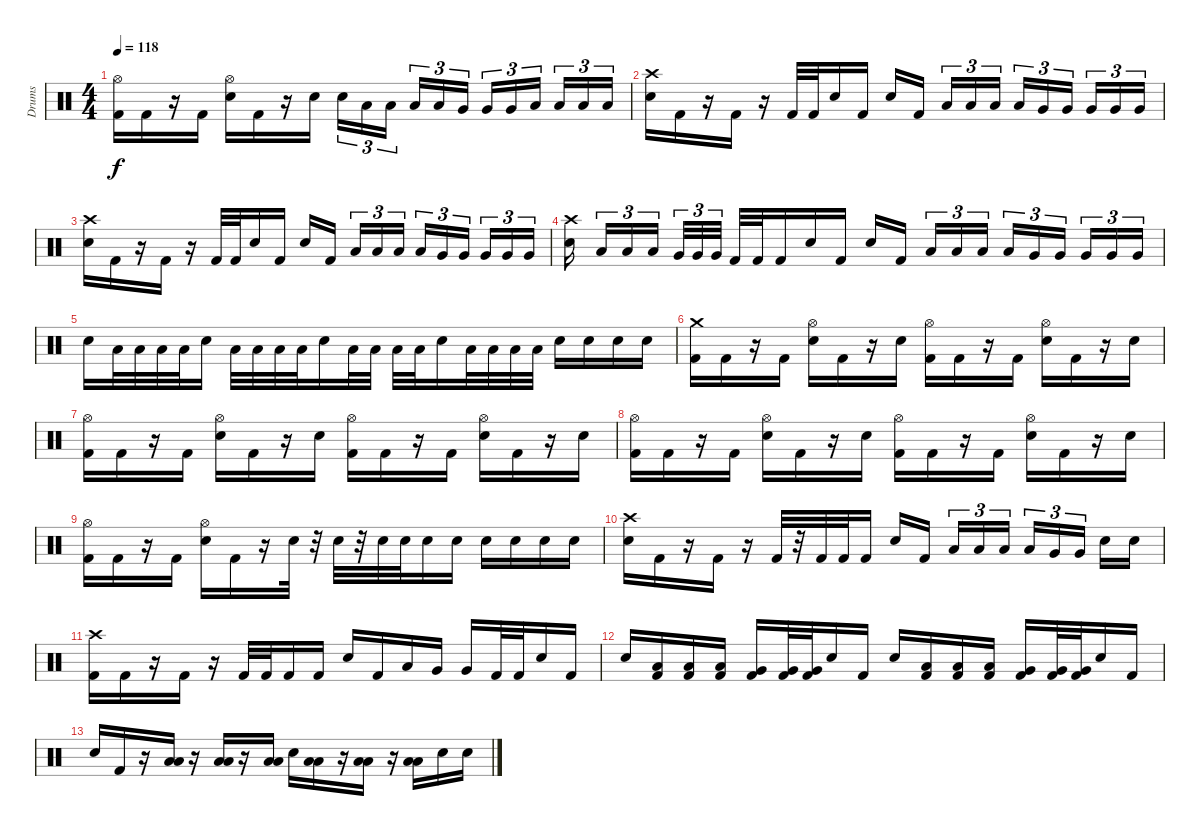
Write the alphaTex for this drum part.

\track ("Drums" "Drums") {instrument percussion}
\staff {score}
\articulation defaults
\ts (4 4)
\tempo 118
\clef neutral
\ks c
("Hi-Hat (open)" "Kick (hit) 2").16{dy f} "Kick (hit) 2".16 r.16 "Kick (hit) 2".16 ("Hi-Hat (open)" "Electric Snare (hit)").16 "Kick (hit) 2".16 r.16 "Electric Snare (hit)".16 "Electric Snare (hit)".16{tu (3 2)} "Low Tom (hit)".16{tu (3 2)} "Low Tom (hit)".16{tu (3 2) beam splitsecondary} "Low Tom (hit)".16{tu (3 2)} "Low Tom (hit)".16{tu (3 2)} "Very Low Tom (hit)".16{tu (3 2)} "Very Low Tom (hit)".16{tu (3 2)} "Very Low Tom (hit)".16{tu (3 2)} "Low Floor Tom (hit)".16{tu (3 2) beam splitsecondary} "Low Floor Tom (hit)".16{tu (3 2)} "Low Floor Tom (hit)".16{tu (3 2)} "Low Floor Tom (hit)".16{tu (3 2)} |
("Crash high (hit)" "Electric Snare (hit)").16 "Kick (hit) 2".16 r.16 "Kick (hit) 2".16 r.16 "Kick (hit) 2".32 "Kick (hit) 2".32 "Electric Snare (hit)".16 "Kick (hit) 2".16 "Electric Snare (hit)".16 "Kick (hit) 2".16{beam splitsecondary} "Low Tom (hit)".16{tu (3 2)} "Low Tom (hit)".16{tu (3 2)} "Low Tom (hit)".16{tu (3 2)} "Low Tom (hit)".16{tu (3 2)} "Very Low Tom (hit)".16{tu (3 2)} "Very Low Tom (hit)".16{tu (3 2) beam splitsecondary} "Very Low Tom (hit)".16{tu (3 2)} "Very Low Tom (hit)".16{tu (3 2)} "Very Low Tom (hit)".16{tu (3 2)} |
("Crash high (hit)" "Electric Snare (hit)").16 "Kick (hit) 2".16 r.16 "Kick (hit) 2".16 r.16 "Kick (hit) 2".32 "Kick (hit) 2".32 "Electric Snare (hit)".16 "Kick (hit) 2".16 "Electric Snare (hit)".16 "Kick (hit) 2".16{beam splitsecondary} "Low Tom (hit)".16{tu (3 2)} "Low Tom (hit)".16{tu (3 2)} "Low Tom (hit)".16{tu (3 2)} "Low Tom (hit)".16{tu (3 2)} "Very Low Tom (hit)".16{tu (3 2)} "Very Low Tom (hit)".16{tu (3 2) beam splitsecondary} "Very Low Tom (hit)".16{tu (3 2)} "Very Low Tom (hit)".16{tu (3 2)} "Very Low Tom (hit)".16{tu (3 2)} |
("Crash high (hit)" "Electric Snare (hit)").16{beam splitsecondary} "Low Tom (hit)".16{tu (3 2)} "Low Tom (hit)".16{tu (3 2)} "Low Tom (hit)".16{tu (3 2) beam splitsecondary} "Very Low Tom (hit)".32{tu (3 2)} "Very Low Tom (hit)".32{tu (3 2)} "Very Low Tom (hit)".32{tu (3 2)} "Kick (hit) 2".32 "Kick (hit) 2".32 "Kick (hit) 2".16 "Electric Snare (hit)".16 "Kick (hit) 2".16 "Electric Snare (hit)".16 "Kick (hit) 2".16{beam splitsecondary} "Low Tom (hit)".16{tu (3 2)} "Low Tom (hit)".16{tu (3 2)} "Low Tom (hit)".16{tu (3 2)} "Low Tom (hit)".16{tu (3 2)} "Very Low Tom (hit)".16{tu (3 2)} "Very Low Tom (hit)".16{tu (3 2) beam splitsecondary} "Very Low Tom (hit)".16{tu (3 2)} "Very Low Tom (hit)".16{tu (3 2)} "Very Low Tom (hit)".16{tu (3 2)} |
"Electric Snare (hit)".16 "Low Tom (hit)".32 "Low Tom (hit)".32 "Low Tom (hit)".32 "Low Tom (hit)".32 "Electric Snare (hit)".16 "Low Tom (hit)".32 "Low Tom (hit)".32 "Low Tom (hit)".32 "Low Tom (hit)".32 "Electric Snare (hit)".16 "Low Tom (hit)".32 "Low Tom (hit)".32 "Low Tom (hit)".32 "Low Tom (hit)".32 "Electric Snare (hit)".16 "Low Tom (hit)".32 "Low Tom (hit)".32 "Low Tom (hit)".32 "Low Tom (hit)".32 "Electric Snare (hit)".16 "Electric Snare (hit)".16 "Electric Snare (hit)".16 "Electric Snare (hit)".16 |
("Crash medium (hit)" "Kick (hit) 2").16 "Kick (hit) 2".16 r.16 "Kick (hit) 2".16 ("Hi-Hat (open)" "Electric Snare (hit)").16 "Kick (hit) 2".16 r.16 "Electric Snare (hit)".16 ("Hi-Hat (open)" "Kick (hit) 2").16 "Kick (hit) 2".16 r.16 "Kick (hit) 2".16 ("Hi-Hat (open)" "Electric Snare (hit)").16 "Kick (hit) 2".16 r.16 "Electric Snare (hit)".16 |
("Hi-Hat (open)" "Kick (hit) 2").16 "Kick (hit) 2".16 r.16 "Kick (hit) 2".16 ("Hi-Hat (open)" "Electric Snare (hit)").16 "Kick (hit) 2".16 r.16 "Electric Snare (hit)".16 ("Hi-Hat (open)" "Kick (hit) 2").16 "Kick (hit) 2".16 r.16 "Kick (hit) 2".16 ("Hi-Hat (open)" "Electric Snare (hit)").16 "Kick (hit) 2".16 r.16 "Electric Snare (hit)".16 |
("Hi-Hat (open)" "Kick (hit) 2").16 "Kick (hit) 2".16 r.16 "Kick (hit) 2".16 ("Hi-Hat (open)" "Electric Snare (hit)").16 "Kick (hit) 2".16 r.16 "Electric Snare (hit)".16 ("Hi-Hat (open)" "Kick (hit) 2").16 "Kick (hit) 2".16 r.16 "Kick (hit) 2".16 ("Hi-Hat (open)" "Electric Snare (hit)").16 "Kick (hit) 2".16 r.16 "Electric Snare (hit)".16 |
("Hi-Hat (open)" "Kick (hit) 2").16 "Kick (hit) 2".16 r.16 "Kick (hit) 2".16 ("Hi-Hat (open)" "Electric Snare (hit)").16 "Kick (hit) 2".16 r.16 "Electric Snare (hit)".32 r.32 "Electric Snare (hit)".32 r.32 "Electric Snare (hit)".32 "Electric Snare (hit)".32 "Electric Snare (hit)".16 "Electric Snare (hit)".16 "Electric Snare (hit)".16 "Electric Snare (hit)".16 "Electric Snare (hit)".16 "Electric Snare (hit)".16 |
("Crash high (hit)" "Electric Snare (hit)").16 "Kick (hit) 2".16 r.16 "Kick (hit) 2".16 r.16 "Kick (hit) 2".32 r.32 "Kick (hit) 2".32 "Kick (hit) 2".32 "Kick (hit) 2".16 "Electric Snare (hit)".16 "Kick (hit) 2".16{beam splitsecondary} "Low Tom (hit)".16{tu (3 2)} "Low Tom (hit)".16{tu (3 2)} "Low Tom (hit)".16{tu (3 2)} "Low Tom (hit)".16{tu (3 2)} "Very Low Tom (hit)".16{tu (3 2)} "Very Low Tom (hit)".16{tu (3 2) beam splitsecondary} "Electric Snare (hit)".16 "Electric Snare (hit)".16 |
("Crash high (hit)" "Kick (hit) 2").16 "Kick (hit) 2".16 r.16 "Kick (hit) 2".16 r.16 "Kick (hit) 2".32 "Kick (hit) 2".32 "Kick (hit) 2".16 "Kick (hit) 2".16 "Electric Snare (hit)".16 "Kick (hit) 2".16 "Low Tom (hit)".16 "Very Low Tom (hit)".16 "Very Low Tom (hit)".16 "Kick (hit) 2".32 "Kick (hit) 2".32 "Electric Snare (hit)".16 "Kick (hit) 2".16 |
"Electric Snare (hit)".16 ("Low Tom (hit)" "Kick (hit) 2").16 ("Low Tom (hit)" "Kick (hit) 2").16 ("Low Tom (hit)" "Kick (hit) 2").16 ("Very Low Tom (hit)" "Kick (hit) 2").16 ("Very Low Tom (hit)" "Kick (hit) 2").32 ("Very Low Tom (hit)" "Kick (hit) 2").32 "Electric Snare (hit)".16 "Kick (hit) 2".16 "Electric Snare (hit)".16 ("Low Tom (hit)" "Kick (hit) 2").16 ("Low Tom (hit)" "Kick (hit) 2").16 ("Low Tom (hit)" "Kick (hit) 2").16 ("Very Low Tom (hit)" "Kick (hit) 2").16 ("Very Low Tom (hit)" "Kick (hit) 2").32 ("Very Low Tom (hit)" "Kick (hit) 2").32 "Electric Snare (hit)".16 "Kick (hit) 2".16 |
"Electric Snare (hit)".16 "Kick (hit) 2".16 r.16 ("Low Tom (hit)" "Low Tom (hit)").16 r.16 ("Low Tom (hit)" "Low Tom (hit)").16 r.16 ("Low Tom (hit)" "Low Tom (hit)").16 "Electric Snare (hit)".16 ("Low Tom (hit)" "Low Tom (hit)").16 r.16 ("Low Tom (hit)" "Low Tom (hit)").16 r.16 ("Low Tom (hit)" "Low Tom (hit)").16 "Electric Snare (hit)".16 "Electric Snare (hit)".16
